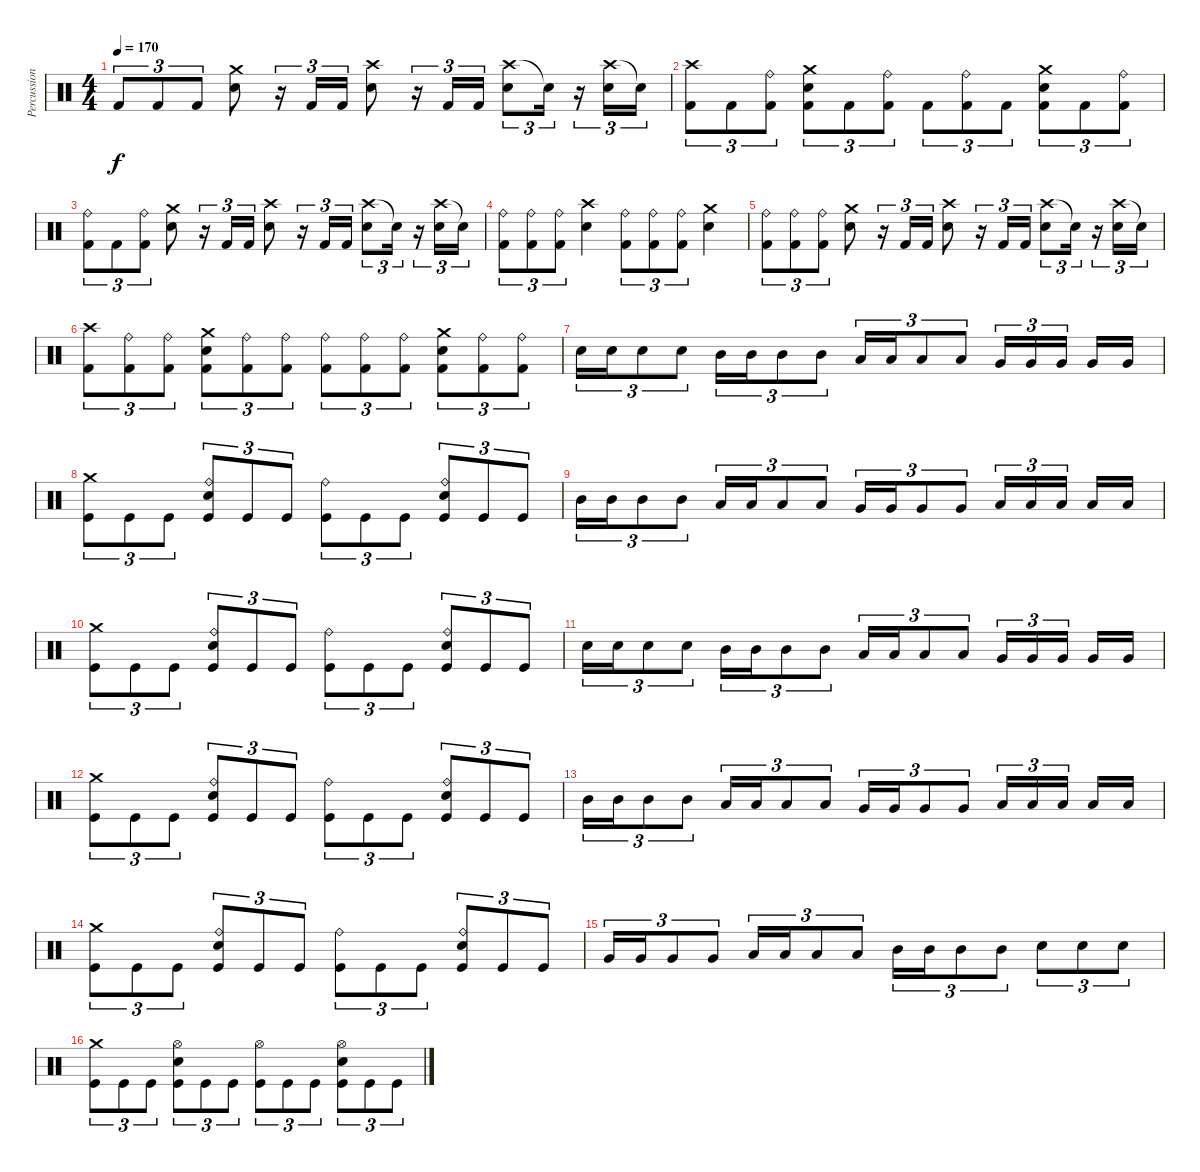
\track ("Percussions" "Percussion") {instrument percussion}
\staff {score}
\articulation defaults
\ts (4 4)
\tempo 170
\clef neutral
\ks c "Kick (hit) 2".8{tu (3 2) dy f} "Kick (hit) 2".8{tu (3 2)} "Kick (hit) 2".8{tu (3 2)}
("Crash medium (hit)" "Electric Snare (hit)").8 r.16{tu (3 2)} "Kick (hit) 2".16{tu (3 2)} "Kick (hit) 2".16{tu (3 2)} ("Crash high (hit)" "Electric Snare (hit)").8 r.16{tu (3 2)} "Kick (hit) 2".16{tu (3 2)} "Kick (hit) 2".16{tu (3 2)} ("Crash high (hit)" "Electric Snare (hit)").8{tu (3 2)} "Electric Snare (hit)"{t}.16{tu (3 2)} r.16{tu (3 2)} ("Crash high (hit)" "Electric Snare (hit)").16{tu (3 2)} "Snare (hit)"{t}.16{tu (3 2)} |
("Crash high (hit)" "Kick (hit) 2").8{tu (3 2)} "Kick (hit) 2".8{tu (3 2)} ("Ride (bell)" "Kick (hit) 2").8{tu (3 2)} ("Crash medium (hit)" "Electric Snare (hit)" "Kick (hit) 2").8{tu (3 2)} "Kick (hit) 2".8{tu (3 2)} ("Ride (bell)" "Kick (hit) 2").8{tu (3 2)} "Kick (hit) 2".8{tu (3 2)} ("Ride (bell)" "Kick (hit) 2").8{tu (3 2)} "Kick (hit) 2".8{tu (3 2)} ("Crash medium (hit)" "Electric Snare (hit)" "Kick (hit) 2").8{tu (3 2)} "Kick (hit) 2".8{tu (3 2)} ("Ride (bell)" "Kick (hit) 2").8{tu (3 2)} |
("Ride (bell)" "Kick (hit) 2").8{tu (3 2)} "Kick (hit) 2".8{tu (3 2)} ("Ride (bell)" "Kick (hit) 2").8{tu (3 2)} ("Crash medium (hit)" "Electric Snare (hit)").8 r.16{tu (3 2)} "Kick (hit) 2".16{tu (3 2)} "Kick (hit) 2".16{tu (3 2)} ("Crash high (hit)" "Electric Snare (hit)").8 r.16{tu (3 2)} "Kick (hit) 2".16{tu (3 2)} "Kick (hit) 2".16{tu (3 2)} ("Crash high (hit)" "Electric Snare (hit)").8{tu (3 2)} "Electric Snare (hit)"{t}.16{tu (3 2)} r.16{tu (3 2)} ("Crash high (hit)" "Electric Snare (hit)").16{tu (3 2)} "Snare (hit)"{t}.16{tu (3 2)} |
("Ride (bell)" "Kick (hit) 2").8{tu (3 2)} ("Ride (bell)" "Kick (hit) 2").8{tu (3 2)} ("Ride (bell)" "Kick (hit) 2").8{tu (3 2)} ("Crash high (hit)" "Electric Snare (hit)").4 ("Ride (bell)" "Kick (hit) 2").8{tu (3 2)} ("Ride (bell)" "Kick (hit) 2").8{tu (3 2)} ("Ride (bell)" "Kick (hit) 2").8{tu (3 2)} ("Crash medium (hit)" "Electric Snare (hit)").4 |
("Ride (bell)" "Kick (hit) 2").8{tu (3 2)} ("Ride (bell)" "Kick (hit) 2").8{tu (3 2)} ("Ride (bell)" "Kick (hit) 2").8{tu (3 2)} ("Crash medium (hit)" "Electric Snare (hit)").8 r.16{tu (3 2)} "Kick (hit) 2".16{tu (3 2)} "Kick (hit) 2".16{tu (3 2)} ("Crash high (hit)" "Electric Snare (hit)").8 r.16{tu (3 2)} "Kick (hit) 2".16{tu (3 2)} "Kick (hit) 2".16{tu (3 2)} ("Crash high (hit)" "Electric Snare (hit)").8{tu (3 2)} "Electric Snare (hit)"{t}.16{tu (3 2)} r.16{tu (3 2)} ("Crash high (hit)" "Electric Snare (hit)").16{tu (3 2)} "Snare (hit)"{t}.16{tu (3 2)} |
("Crash high (hit)" "Kick (hit) 2").8{tu (3 2)} ("Ride (bell)" "Kick (hit) 2").8{tu (3 2)} ("Ride (bell)" "Kick (hit) 2").8{tu (3 2)} ("Crash medium (hit)" "Electric Snare (hit)" "Kick (hit) 2").8{tu (3 2)} ("Ride (bell)" "Kick (hit) 2").8{tu (3 2)} ("Ride (bell)" "Kick (hit) 2").8{tu (3 2)} ("Ride (bell)" "Kick (hit) 2").8{tu (3 2)} ("Ride (bell)" "Kick (hit) 2").8{tu (3 2)} ("Ride (bell)" "Kick (hit) 2").8{tu (3 2)} ("Crash medium (hit)" "Electric Snare (hit)" "Kick (hit) 2").8{tu (3 2)} ("Ride (bell)" "Kick (hit) 2").8{tu (3 2)} ("Ride (bell)" "Kick (hit) 2").8{tu (3 2)} |
"Electric Snare (hit)".16{tu (3 2)} "Electric Snare (hit)".16{tu (3 2)} "Electric Snare (hit)".8{tu (3 2)} "Electric Snare (hit)".8{tu (3 2)} "Mid Tom (hit)".16{tu (3 2)} "Mid Tom (hit)".16{tu (3 2)} "Mid Tom (hit)".8{tu (3 2)} "Mid Tom (hit)".8{tu (3 2)} "Low Tom (hit)".16{tu (3 2)} "Low Tom (hit)".16{tu (3 2)} "Low Tom (hit)".8{tu (3 2)} "Low Tom (hit)".8{tu (3 2)} "Very Low Tom (hit)".16{tu (3 2)} "Very Low Tom (hit)".16{tu (3 2)} "Very Low Tom (hit)".16{tu (3 2)} "Very Low Tom (hit)".16 "Very Low Tom (hit)".16 |
("Crash medium (hit)" "Kick (hit)").8{tu (3 2)} "Kick (hit)".8{tu (3 2)} "Kick (hit)".8{tu (3 2)} ("Ride (bell)" "Electric Snare (hit)" "Kick (hit)").8{tu (3 2)} "Kick (hit)".8{tu (3 2)} "Kick (hit)".8{tu (3 2)} ("Ride (bell)" "Kick (hit)").8{tu (3 2)} "Kick (hit)".8{tu (3 2)} "Kick (hit)".8{tu (3 2)} ("Ride (bell)" "Electric Snare (hit)" "Kick (hit)").8{tu (3 2)} "Kick (hit)".8{tu (3 2)} "Kick (hit)".8{tu (3 2)} |
"Mid Tom (hit)".16{tu (3 2)} "Mid Tom (hit)".16{tu (3 2)} "Mid Tom (hit)".8{tu (3 2)} "Mid Tom (hit)".8{tu (3 2)} "Low Tom (hit)".16{tu (3 2)} "Low Tom (hit)".16{tu (3 2)} "Low Tom (hit)".8{tu (3 2)} "Low Tom (hit)".8{tu (3 2)} "Very Low Tom (hit)".16{tu (3 2)} "Very Low Tom (hit)".16{tu (3 2)} "Very Low Tom (hit)".8{tu (3 2)} "Very Low Tom (hit)".8{tu (3 2)} "Low Floor Tom (hit)".16{tu (3 2)} "Low Floor Tom (hit)".16{tu (3 2)} "Low Floor Tom (hit)".16{tu (3 2)} "Low Floor Tom (hit)".16 "Low Floor Tom (hit)".16 |
("Crash medium (hit)" "Kick (hit)").8{tu (3 2)} "Kick (hit)".8{tu (3 2)} "Kick (hit)".8{tu (3 2)} ("Ride (bell)" "Electric Snare (hit)" "Kick (hit)").8{tu (3 2)} "Kick (hit)".8{tu (3 2)} "Kick (hit)".8{tu (3 2)} ("Ride (bell)" "Kick (hit)").8{tu (3 2)} "Kick (hit)".8{tu (3 2)} "Kick (hit)".8{tu (3 2)} ("Ride (bell)" "Electric Snare (hit)" "Kick (hit)").8{tu (3 2)} "Kick (hit)".8{tu (3 2)} "Kick (hit)".8{tu (3 2)} |
"Electric Snare (hit)".16{tu (3 2)} "Electric Snare (hit)".16{tu (3 2)} "Electric Snare (hit)".8{tu (3 2)} "Electric Snare (hit)".8{tu (3 2)} "Mid Tom (hit)".16{tu (3 2)} "Mid Tom (hit)".16{tu (3 2)} "Mid Tom (hit)".8{tu (3 2)} "Mid Tom (hit)".8{tu (3 2)} "Low Tom (hit)".16{tu (3 2)} "Low Tom (hit)".16{tu (3 2)} "Low Tom (hit)".8{tu (3 2)} "Low Tom (hit)".8{tu (3 2)} "Very Low Tom (hit)".16{tu (3 2)} "Very Low Tom (hit)".16{tu (3 2)} "Very Low Tom (hit)".16{tu (3 2)} "Very Low Tom (hit)".16 "Very Low Tom (hit)".16 |
("Crash medium (hit)" "Kick (hit)").8{tu (3 2)} "Kick (hit)".8{tu (3 2)} "Kick (hit)".8{tu (3 2)} ("Ride (bell)" "Electric Snare (hit)" "Kick (hit)").8{tu (3 2)} "Kick (hit)".8{tu (3 2)} "Kick (hit)".8{tu (3 2)} ("Ride (bell)" "Kick (hit)").8{tu (3 2)} "Kick (hit)".8{tu (3 2)} "Kick (hit)".8{tu (3 2)} ("Ride (bell)" "Electric Snare (hit)" "Kick (hit)").8{tu (3 2)} "Kick (hit)".8{tu (3 2)} "Kick (hit)".8{tu (3 2)} |
"Mid Tom (hit)".16{tu (3 2)} "Mid Tom (hit)".16{tu (3 2)} "Mid Tom (hit)".8{tu (3 2)} "Mid Tom (hit)".8{tu (3 2)} "Low Tom (hit)".16{tu (3 2)} "Low Tom (hit)".16{tu (3 2)} "Low Tom (hit)".8{tu (3 2)} "Low Tom (hit)".8{tu (3 2)} "Very Low Tom (hit)".16{tu (3 2)} "Very Low Tom (hit)".16{tu (3 2)} "Very Low Tom (hit)".8{tu (3 2)} "Very Low Tom (hit)".8{tu (3 2)} "Low Floor Tom (hit)".16{tu (3 2)} "Low Floor Tom (hit)".16{tu (3 2)} "Low Floor Tom (hit)".16{tu (3 2)} "Low Floor Tom (hit)".16 "Low Floor Tom (hit)".16 |
("Crash medium (hit)" "Kick (hit)").8{tu (3 2)} "Kick (hit)".8{tu (3 2)} "Kick (hit)".8{tu (3 2)} ("Ride (bell)" "Electric Snare (hit)" "Kick (hit)").8{tu (3 2)} "Kick (hit)".8{tu (3 2)} "Kick (hit)".8{tu (3 2)} ("Ride (bell)" "Kick (hit)").8{tu (3 2)} "Kick (hit)".8{tu (3 2)} "Kick (hit)".8{tu (3 2)} ("Ride (bell)" "Electric Snare (hit)" "Kick (hit)").8{tu (3 2)} "Kick (hit)".8{tu (3 2)} "Kick (hit)".8{tu (3 2)} |
"Very Low Tom (hit)".16{tu (3 2)} "Very Low Tom (hit)".16{tu (3 2)} "Very Low Tom (hit)".8{tu (3 2)} "Very Low Tom (hit)".8{tu (3 2)} "Low Tom (hit)".16{tu (3 2)} "Low Tom (hit)".16{tu (3 2)} "Low Tom (hit)".8{tu (3 2)} "Low Tom (hit)".8{tu (3 2)} "Mid Tom (hit)".16{tu (3 2)} "Mid Tom (hit)".16{tu (3 2)} "Mid Tom (hit)".8{tu (3 2)} "Mid Tom (hit)".8{tu (3 2)} "Electric Snare (hit)".8{tu (3 2)} "Electric Snare (hit)".8{tu (3 2)} "Electric Snare (hit)".8{tu (3 2)} |
("Crash medium (hit)" "Kick (hit)").8{tu (3 2)} "Kick (hit)".8{tu (3 2)} "Kick (hit)".8{tu (3 2)} ("Hi-Hat (open)" "Electric Snare (hit)" "Kick (hit)").8{tu (3 2)} "Kick (hit)".8{tu (3 2)} "Kick (hit)".8{tu (3 2)} ("Hi-Hat (open)" "Kick (hit)").8{tu (3 2)} "Kick (hit)".8{tu (3 2)} "Kick (hit)".8{tu (3 2)} ("Hi-Hat (open)" "Electric Snare (hit)" "Kick (hit)").8{tu (3 2)} "Kick (hit)".8{tu (3 2)} "Kick (hit)".8{tu (3 2)}
